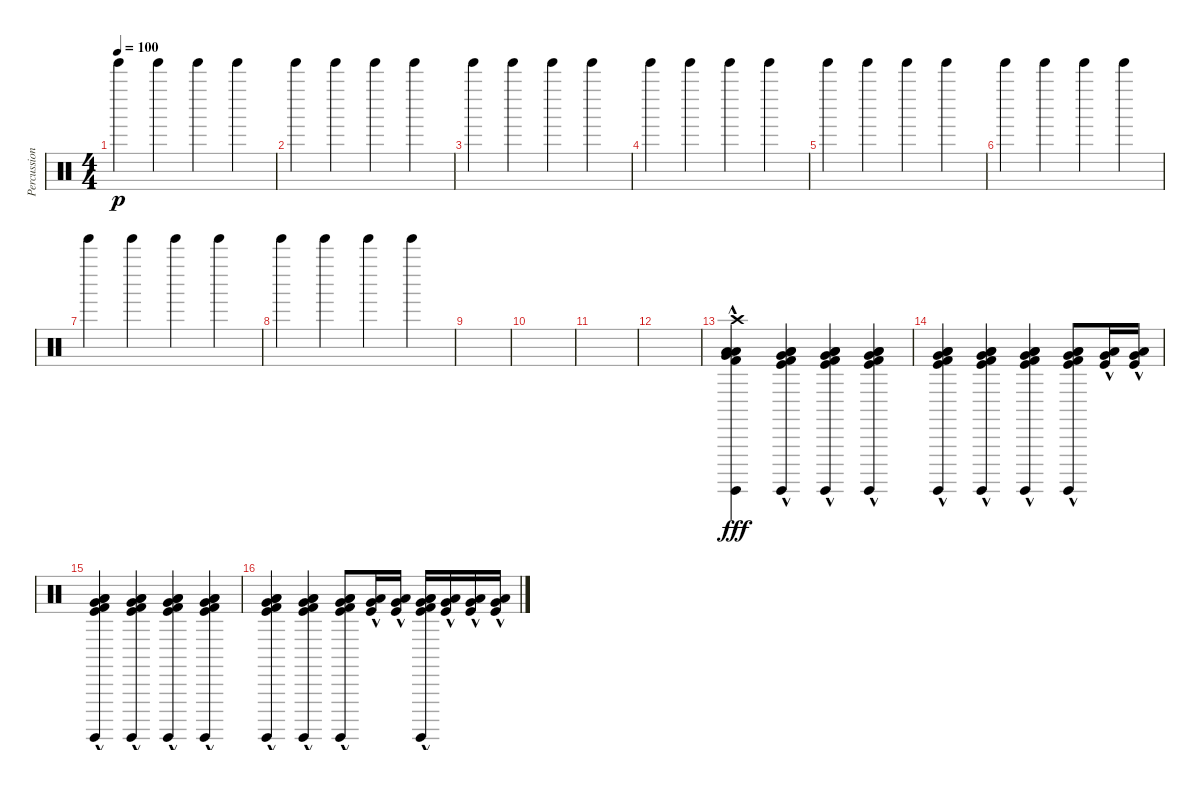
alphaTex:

\track ("Percussion" "Percussion") {instrument percussion}
\staff {score}
\articulation defaults
\ts (4 4)
\tempo 100
\clef neutral
\ks c "Tinkle Bell (hit)".4{dy p} "Tinkle Bell (hit)".4 "Tinkle Bell (hit)".4 "Tinkle Bell (hit)".4
|
"Tinkle Bell (hit)".4 "Tinkle Bell (hit)".4 "Tinkle Bell (hit)".4 "Tinkle Bell (hit)".4 |
"Tinkle Bell (hit)".4 "Tinkle Bell (hit)".4 "Tinkle Bell (hit)".4 "Tinkle Bell (hit)".4 |
"Tinkle Bell (hit)".4 "Tinkle Bell (hit)".4 "Tinkle Bell (hit)".4 "Tinkle Bell (hit)".4 |
"Tinkle Bell (hit)".4 "Tinkle Bell (hit)".4 "Tinkle Bell (hit)".4 "Tinkle Bell (hit)".4 |
"Tinkle Bell (hit)".4 "Tinkle Bell (hit)".4 "Tinkle Bell (hit)".4 "Tinkle Bell (hit)".4 |
"Tinkle Bell (hit)".4 "Tinkle Bell (hit)".4 "Tinkle Bell (hit)".4 "Tinkle Bell (hit)".4 |
"Tinkle Bell (hit)".4 "Tinkle Bell (hit)".4 "Tinkle Bell (hit)".4 "Tinkle Bell (hit)".4 |
|
|
|
|
("Crash high (hit)"{hac} "Very Low Tom (hit)"{hac} "Low Tom (hit)"{hac} "Low Floor Tom (hit)"{hac} "Surdo (hit)"{hac} "Kick (hit) 2"{hac}).4{dy fff} ("Kick (hit)"{hac} "Very Low Tom (hit)"{hac} "Low Tom (hit)"{hac} "Low Floor Tom (hit)"{hac} "Surdo (hit)"{hac} "Kick (hit) 2"{hac}).4 ("Kick (hit)"{hac} "Very Low Tom (hit)"{hac} "Low Tom (hit)"{hac} "Low Floor Tom (hit)"{hac} "Surdo (hit)"{hac} "Kick (hit) 2"{hac}).4 ("Kick (hit)"{hac} "Very Low Tom (hit)"{hac} "Low Floor Tom (hit)"{hac} "Low Tom (hit)"{hac} "Surdo (hit)"{hac} "Kick (hit) 2"{hac}).4 |
("Kick (hit)"{hac} "Very Low Tom (hit)"{hac} "Low Tom (hit)"{hac} "Low Floor Tom (hit)"{hac} "Surdo (hit)"{hac} "Kick (hit) 2"{hac}).4 ("Kick (hit)"{hac} "Very Low Tom (hit)"{hac} "Low Tom (hit)"{hac} "Low Floor Tom (hit)"{hac} "Surdo (hit)"{hac} "Kick (hit) 2"{hac}).4 ("Kick (hit)"{hac} "Very Low Tom (hit)"{hac} "Low Tom (hit)"{hac} "Low Floor Tom (hit)"{hac} "Surdo (hit)"{hac} "Kick (hit) 2"{hac}).4 ("Kick (hit)"{hac} "Very Low Tom (hit)"{hac} "Low Floor Tom (hit)"{hac} "Low Tom (hit)"{hac} "Surdo (hit)"{hac} "Kick (hit) 2"{hac}).8 ("Kick (hit)"{hac} "Very Low Tom (hit)"{hac} "Low Tom (hit)"{hac}).16 ("Kick (hit)"{hac} "Very Low Tom (hit)"{hac} "Low Tom (hit)"{hac}).16 |
("Kick (hit)"{hac} "Very Low Tom (hit)"{hac} "Low Tom (hit)"{hac} "Low Floor Tom (hit)"{hac} "Surdo (hit)"{hac} "Kick (hit) 2"{hac}).4 ("Kick (hit)"{hac} "Very Low Tom (hit)"{hac} "Low Tom (hit)"{hac} "Low Floor Tom (hit)"{hac} "Surdo (hit)"{hac} "Kick (hit) 2"{hac}).4 ("Kick (hit)"{hac} "Very Low Tom (hit)"{hac} "Low Tom (hit)"{hac} "Low Floor Tom (hit)"{hac} "Surdo (hit)"{hac} "Kick (hit) 2"{hac}).4 ("Kick (hit)"{hac} "Very Low Tom (hit)"{hac} "Low Floor Tom (hit)"{hac} "Low Tom (hit)"{hac} "Surdo (hit)"{hac} "Kick (hit) 2"{hac}).4 |
("Kick (hit)"{hac} "Very Low Tom (hit)"{hac} "Low Tom (hit)"{hac} "Low Floor Tom (hit)"{hac} "Surdo (hit)"{hac} "Kick (hit) 2"{hac}).4 ("Kick (hit)"{hac} "Very Low Tom (hit)"{hac} "Low Tom (hit)"{hac} "Low Floor Tom (hit)"{hac} "Surdo (hit)"{hac} "Kick (hit) 2"{hac}).4 ("Kick (hit)"{hac} "Very Low Tom (hit)"{hac} "Low Tom (hit)"{hac} "Low Floor Tom (hit)"{hac} "Surdo (hit)"{hac} "Kick (hit) 2"{hac}).8 ("Kick (hit)"{hac} "Very Low Tom (hit)"{hac} "Low Tom (hit)"{hac}).16 ("Kick (hit)"{hac} "Very Low Tom (hit)"{hac} "Low Tom (hit)"{hac}).16 ("Kick (hit)"{hac} "Very Low Tom (hit)"{hac} "Low Tom (hit)"{hac} "Low Floor Tom (hit)"{hac} "Surdo (hit)"{hac} "Kick (hit) 2"{hac}).16 ("Kick (hit)"{hac} "Very Low Tom (hit)"{hac} "Low Tom (hit)"{hac}).16 ("Kick (hit)"{hac} "Very Low Tom (hit)"{hac} "Low Tom (hit)"{hac}).16 ("Kick (hit)"{hac} "Very Low Tom (hit)"{hac} "Low Tom (hit)"{hac}).16
